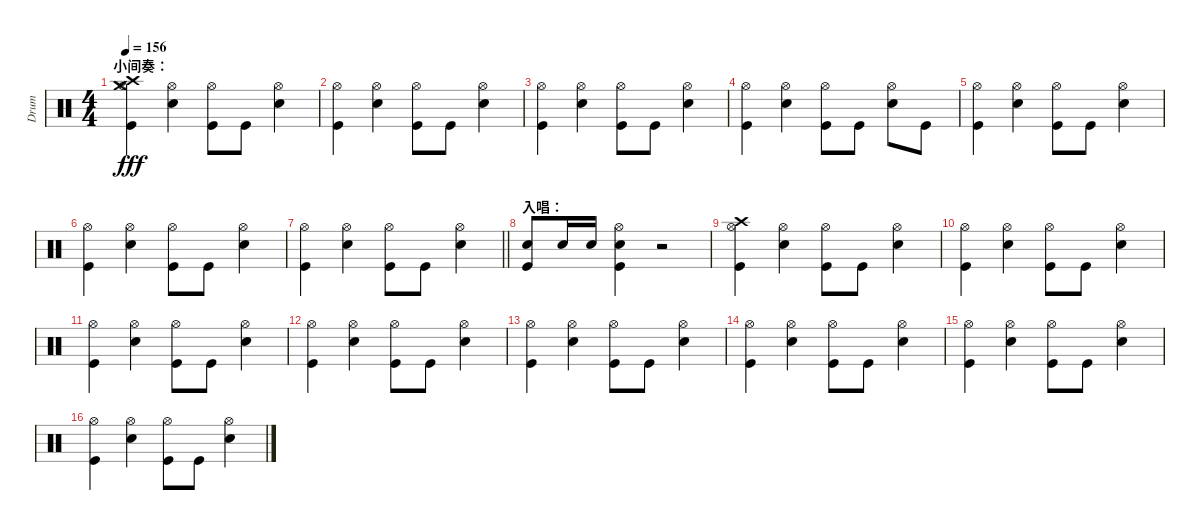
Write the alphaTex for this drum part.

\track ("Drum" "Drum") {instrument percussion}
\staff {score}
\articulation defaults
\ts (4 4)
\section ("" "小间奏：")
\tempo 156
\clef neutral
\ks c
("Crash medium (hit)" "Hi-Hat (open)" "Crash high (hit)" "Kick (hit)").4{dy fff} ("Metronome (bell)" "Hi-Hat (open)").4 ("Hi-Hat (open)" "Kick (hit)").8 "Kick (hit)".8 ("Metronome (bell)" "Hi-Hat (open)").4 |
("Hi-Hat (open)" "Kick (hit)").4 ("Hi-Hat (open)" "Metronome (bell)").4 ("Kick (hit)" "Hi-Hat (open)").8 "Kick (hit)".8 ("Hi-Hat (open)" "Metronome (bell)").4 |
("Kick (hit)" "Hi-Hat (open)").4 ("Metronome (bell)" "Hi-Hat (open)").4 ("Hi-Hat (open)" "Kick (hit)").8 "Kick (hit)".8 ("Hi-Hat (open)" "Metronome (bell)").4 |
("Kick (hit)" "Hi-Hat (open)").4 ("Metronome (bell)" "Hi-Hat (open)").4 ("Hi-Hat (open)" "Kick (hit)").8 "Kick (hit)".8 ("Metronome (bell)" "Hi-Hat (open)").8 "Kick (hit)".8 |
("Hi-Hat (open)" "Kick (hit)").4 ("Hi-Hat (open)" "Metronome (bell)").4 ("Kick (hit)" "Hi-Hat (open)").8 "Kick (hit)".8 ("Metronome (bell)" "Hi-Hat (open)").4 |
("Hi-Hat (open)" "Kick (hit)").4 ("Metronome (bell)" "Hi-Hat (open)").4 ("Hi-Hat (open)" "Kick (hit)").8 "Kick (hit)".8 ("Metronome (bell)" "Hi-Hat (open)").4 |
\barLineRight lightlight
("Kick (hit)" "Hi-Hat (open)").4 ("Metronome (bell)" "Hi-Hat (open)").4 ("Hi-Hat (open)" "Kick (hit)").8 "Kick (hit)".8 ("Hi-Hat (open)" "Metronome (bell)").4 |
\section ("" "入唱：")
("Metronome (bell)" "Kick (hit)").8 "Metronome (bell)".16 "Metronome (bell)".16 ("Hi-Hat (open)" "Kick (hit)" "Metronome (bell)").4 r.2 |
("Hi-Hat (open)" "Crash high (hit)" "Kick (hit)").4 ("Metronome (bell)" "Hi-Hat (open)").4 ("Hi-Hat (open)" "Kick (hit)").8 "Kick (hit)".8 ("Metronome (bell)" "Hi-Hat (open)").4 |
("Hi-Hat (open)" "Kick (hit)").4 ("Hi-Hat (open)" "Metronome (bell)").4 ("Kick (hit)" "Hi-Hat (open)").8 "Kick (hit)".8 ("Hi-Hat (open)" "Metronome (bell)").4 |
("Kick (hit)" "Hi-Hat (open)").4 ("Metronome (bell)" "Hi-Hat (open)").4 ("Hi-Hat (open)" "Kick (hit)").8 "Kick (hit)".8 ("Hi-Hat (open)" "Metronome (bell)").4 |
("Kick (hit)" "Hi-Hat (open)").4 ("Metronome (bell)" "Hi-Hat (open)").4 ("Hi-Hat (open)" "Kick (hit)").8 "Kick (hit)".8 ("Metronome (bell)" "Hi-Hat (open)").4 |
("Hi-Hat (open)" "Kick (hit)").4 ("Hi-Hat (open)" "Metronome (bell)").4 ("Kick (hit)" "Hi-Hat (open)").8 "Kick (hit)".8 ("Metronome (bell)" "Hi-Hat (open)").4 |
("Hi-Hat (open)" "Kick (hit)").4 ("Metronome (bell)" "Hi-Hat (open)").4 ("Hi-Hat (open)" "Kick (hit)").8 "Kick (hit)".8 ("Metronome (bell)" "Hi-Hat (open)").4 |
("Kick (hit)" "Hi-Hat (open)").4 ("Metronome (bell)" "Hi-Hat (open)").4 ("Hi-Hat (open)" "Kick (hit)").8 "Kick (hit)".8 ("Hi-Hat (open)" "Metronome (bell)").4 |
("Hi-Hat (open)" "Kick (hit)").4 ("Hi-Hat (open)" "Metronome (bell)").4 ("Kick (hit)" "Hi-Hat (open)").8 "Kick (hit)".8 ("Metronome (bell)" "Hi-Hat (open)").4
